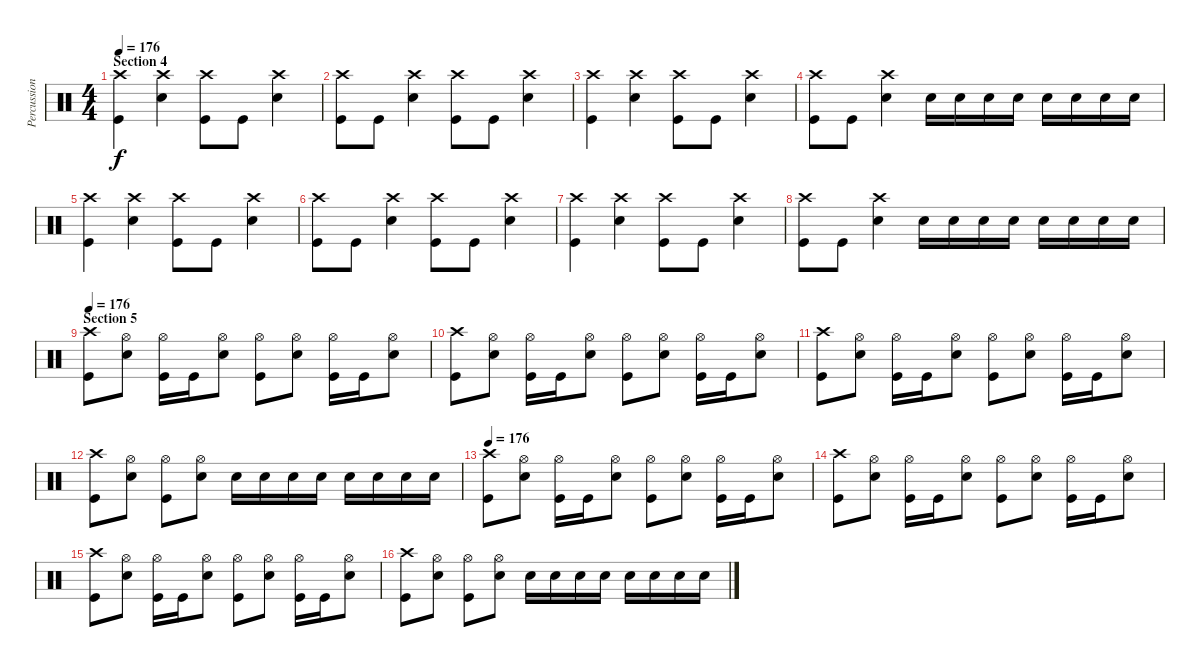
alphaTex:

\track ("Percussions" "Percussion") {instrument percussion}
\staff {score}
\articulation defaults
\ts (4 4)
\section ("" "Section 4")
\tempo 176
\clef neutral
\ks c
("Crash high (hit)" "Kick (hit)").4{dy f} ("Crash high (hit)" "Electric Snare (hit)").4 ("Crash high (hit)" "Kick (hit)").8 "Kick (hit)".8 ("Crash high (hit)" "Electric Snare (hit)").4 |
("Crash high (hit)" "Kick (hit)").8 "Kick (hit)".8 ("Crash high (hit)" "Electric Snare (hit)").4 ("Crash high (hit)" "Kick (hit)").8 "Kick (hit)".8 ("Crash high (hit)" "Electric Snare (hit)").4 |
("Crash high (hit)" "Kick (hit)").4 ("Crash high (hit)" "Electric Snare (hit)").4 ("Crash high (hit)" "Kick (hit)").8 "Kick (hit)".8 ("Crash high (hit)" "Electric Snare (hit)").4 |
("Crash high (hit)" "Kick (hit)").8 "Kick (hit)".8 ("Crash high (hit)" "Electric Snare (hit)").4 "Electric Snare (hit)".16 "Electric Snare (hit)".16 "Electric Snare (hit)".16 "Electric Snare (hit)".16 "Electric Snare (hit)".16 "Electric Snare (hit)".16 "Electric Snare (hit)".16 "Electric Snare (hit)".16 |
("Crash high (hit)" "Kick (hit)").4 ("Crash high (hit)" "Electric Snare (hit)").4 ("Crash high (hit)" "Kick (hit)").8 "Kick (hit)".8 ("Crash high (hit)" "Electric Snare (hit)").4 |
("Crash high (hit)" "Kick (hit)").8 "Kick (hit)".8 ("Crash high (hit)" "Electric Snare (hit)").4 ("Crash high (hit)" "Kick (hit)").8 "Kick (hit)".8 ("Crash high (hit)" "Electric Snare (hit)").4 |
("Crash high (hit)" "Kick (hit)").4 ("Crash high (hit)" "Electric Snare (hit)").4 ("Crash high (hit)" "Kick (hit)").8 "Kick (hit)".8 ("Crash high (hit)" "Electric Snare (hit)").4 |
("Crash high (hit)" "Kick (hit)").8 "Kick (hit)".8 ("Crash high (hit)" "Electric Snare (hit)").4 "Electric Snare (hit)".16 "Electric Snare (hit)".16 "Electric Snare (hit)".16 "Electric Snare (hit)".16 "Electric Snare (hit)".16 "Electric Snare (hit)".16 "Electric Snare (hit)".16 "Electric Snare (hit)".16 |
\section ("" "Section 5")
\tempo 176
("Crash high (hit)" "Kick (hit)").8 ("Hi-Hat (open)" "Electric Snare (hit)").8 ("Hi-Hat (open)" "Kick (hit)").16 "Kick (hit)".16 ("Hi-Hat (open)" "Electric Snare (hit)").8 ("Hi-Hat (open)" "Kick (hit)").8 ("Hi-Hat (open)" "Electric Snare (hit)").8 ("Hi-Hat (open)" "Kick (hit)").16 "Kick (hit)".16 ("Hi-Hat (open)" "Electric Snare (hit)").8 |
("Crash high (hit)" "Kick (hit)").8 ("Hi-Hat (open)" "Electric Snare (hit)").8 ("Hi-Hat (open)" "Kick (hit)").16 "Kick (hit)".16 ("Hi-Hat (open)" "Electric Snare (hit)").8 ("Hi-Hat (open)" "Kick (hit)").8 ("Hi-Hat (open)" "Electric Snare (hit)").8 ("Hi-Hat (open)" "Kick (hit)").16 "Kick (hit)".16 ("Hi-Hat (open)" "Electric Snare (hit)").8 |
("Crash high (hit)" "Kick (hit)").8 ("Hi-Hat (open)" "Electric Snare (hit)").8 ("Hi-Hat (open)" "Kick (hit)").16 "Kick (hit)".16 ("Hi-Hat (open)" "Electric Snare (hit)").8 ("Hi-Hat (open)" "Kick (hit)").8 ("Hi-Hat (open)" "Electric Snare (hit)").8 ("Hi-Hat (open)" "Kick (hit)").16 "Kick (hit)".16 ("Hi-Hat (open)" "Electric Snare (hit)").8 |
("Crash high (hit)" "Kick (hit)").8 ("Hi-Hat (open)" "Electric Snare (hit)").8 ("Hi-Hat (open)" "Kick (hit)").8 ("Hi-Hat (open)" "Electric Snare (hit)").8 "Electric Snare (hit)".16 "Electric Snare (hit)".16 "Electric Snare (hit)".16 "Electric Snare (hit)".16 "Electric Snare (hit)".16 "Electric Snare (hit)".16 "Electric Snare (hit)".16 "Electric Snare (hit)".16 |
\tempo 176
("Crash high (hit)" "Kick (hit)").8 ("Hi-Hat (open)" "Electric Snare (hit)").8 ("Hi-Hat (open)" "Kick (hit)").16 "Kick (hit)".16 ("Hi-Hat (open)" "Electric Snare (hit)").8 ("Hi-Hat (open)" "Kick (hit)").8 ("Hi-Hat (open)" "Electric Snare (hit)").8 ("Hi-Hat (open)" "Kick (hit)").16 "Kick (hit)".16 ("Hi-Hat (open)" "Electric Snare (hit)").8 |
("Crash high (hit)" "Kick (hit)").8 ("Hi-Hat (open)" "Electric Snare (hit)").8 ("Hi-Hat (open)" "Kick (hit)").16 "Kick (hit)".16 ("Hi-Hat (open)" "Electric Snare (hit)").8 ("Hi-Hat (open)" "Kick (hit)").8 ("Hi-Hat (open)" "Electric Snare (hit)").8 ("Hi-Hat (open)" "Kick (hit)").16 "Kick (hit)".16 ("Hi-Hat (open)" "Electric Snare (hit)").8 |
("Crash high (hit)" "Kick (hit)").8 ("Hi-Hat (open)" "Electric Snare (hit)").8 ("Hi-Hat (open)" "Kick (hit)").16 "Kick (hit)".16 ("Hi-Hat (open)" "Electric Snare (hit)").8 ("Hi-Hat (open)" "Kick (hit)").8 ("Hi-Hat (open)" "Electric Snare (hit)").8 ("Hi-Hat (open)" "Kick (hit)").16 "Kick (hit)".16 ("Hi-Hat (open)" "Electric Snare (hit)").8 |
("Crash high (hit)" "Kick (hit)").8 ("Hi-Hat (open)" "Electric Snare (hit)").8 ("Hi-Hat (open)" "Kick (hit)").8 ("Hi-Hat (open)" "Electric Snare (hit)").8 "Electric Snare (hit)".16 "Electric Snare (hit)".16 "Electric Snare (hit)".16 "Electric Snare (hit)".16 "Electric Snare (hit)".16 "Electric Snare (hit)".16 "Electric Snare (hit)".16 "Electric Snare (hit)".16
